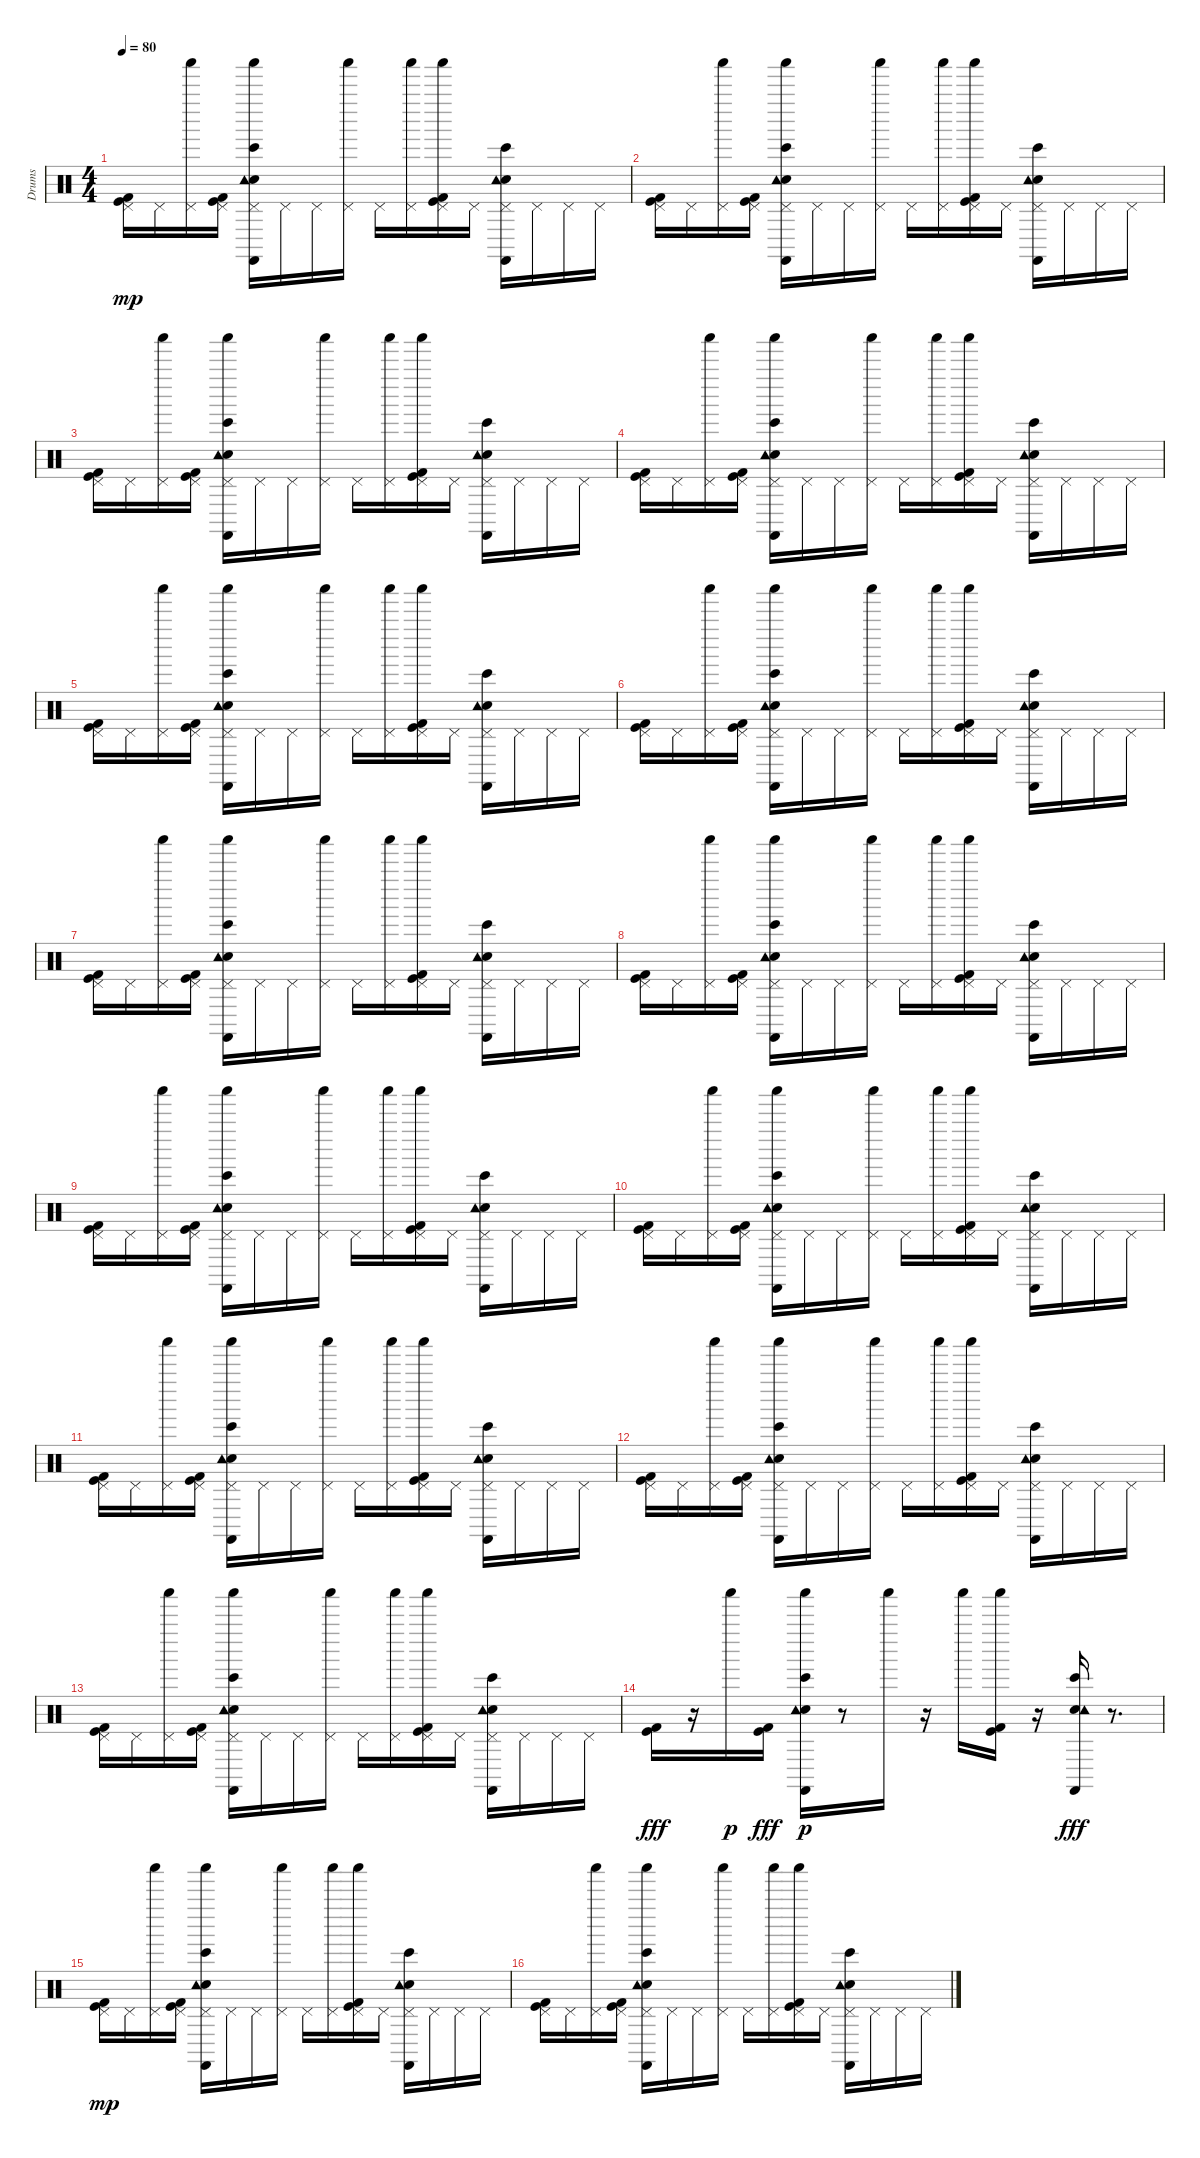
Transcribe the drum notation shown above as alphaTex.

\track ("Drums" "Drums") {instrument percussion}
\staff {score}
\articulation defaults
\ts (4 4)
\tempo 80
\clef neutral
\ks c
("Kick (hit)" "Kick (hit) 2" "Pedal Hi-Hat (hit)").16{dy mp} "Pedal Hi-Hat (hit)".16 ("Shaker (hit)" "Pedal Hi-Hat (hit)").16 ("Kick (hit)" "Kick (hit) 2" "Pedal Hi-Hat (hit)").16 ("Castanets (hit)" "Hand Clap (hit)" "Shaker (hit)" "Tambourine (hit)" "Bongo High (hit)" "Pedal Hi-Hat (hit)").16 "Pedal Hi-Hat (hit)".16 "Pedal Hi-Hat (hit)".16 ("Shaker (hit)" "Pedal Hi-Hat (hit)").16 "Pedal Hi-Hat (hit)".16 ("Shaker (hit)" "Pedal Hi-Hat (hit)").16 ("Kick (hit)" "Kick (hit) 2" "Shaker (hit)" "Pedal Hi-Hat (hit)").16 "Pedal Hi-Hat (hit)".16 ("Castanets (hit)" "Hand Clap (hit)" "Tambourine (hit)" "Bongo High (hit)" "Pedal Hi-Hat (hit)").16 "Pedal Hi-Hat (hit)".16 "Pedal Hi-Hat (hit)".16 "Pedal Hi-Hat (hit)".16 |
("Kick (hit)" "Kick (hit) 2" "Pedal Hi-Hat (hit)").16 "Pedal Hi-Hat (hit)".16 ("Shaker (hit)" "Pedal Hi-Hat (hit)").16 ("Kick (hit)" "Kick (hit) 2" "Pedal Hi-Hat (hit)").16 ("Castanets (hit)" "Hand Clap (hit)" "Shaker (hit)" "Tambourine (hit)" "Bongo High (hit)" "Pedal Hi-Hat (hit)").16 "Pedal Hi-Hat (hit)".16 "Pedal Hi-Hat (hit)".16 ("Shaker (hit)" "Pedal Hi-Hat (hit)").16 "Pedal Hi-Hat (hit)".16 ("Shaker (hit)" "Pedal Hi-Hat (hit)").16 ("Kick (hit)" "Kick (hit) 2" "Shaker (hit)" "Pedal Hi-Hat (hit)").16 "Pedal Hi-Hat (hit)".16 ("Castanets (hit)" "Hand Clap (hit)" "Tambourine (hit)" "Bongo High (hit)" "Pedal Hi-Hat (hit)").16 "Pedal Hi-Hat (hit)".16 "Pedal Hi-Hat (hit)".16 "Pedal Hi-Hat (hit)".16 |
("Kick (hit)" "Kick (hit) 2" "Pedal Hi-Hat (hit)").16 "Pedal Hi-Hat (hit)".16 ("Shaker (hit)" "Pedal Hi-Hat (hit)").16 ("Kick (hit)" "Kick (hit) 2" "Pedal Hi-Hat (hit)").16 ("Castanets (hit)" "Hand Clap (hit)" "Shaker (hit)" "Tambourine (hit)" "Bongo High (hit)" "Pedal Hi-Hat (hit)").16 "Pedal Hi-Hat (hit)".16 "Pedal Hi-Hat (hit)".16 ("Shaker (hit)" "Pedal Hi-Hat (hit)").16 "Pedal Hi-Hat (hit)".16 ("Shaker (hit)" "Pedal Hi-Hat (hit)").16 ("Kick (hit)" "Kick (hit) 2" "Shaker (hit)" "Pedal Hi-Hat (hit)").16 "Pedal Hi-Hat (hit)".16 ("Castanets (hit)" "Hand Clap (hit)" "Tambourine (hit)" "Bongo High (hit)" "Pedal Hi-Hat (hit)").16 "Pedal Hi-Hat (hit)".16 "Pedal Hi-Hat (hit)".16 "Pedal Hi-Hat (hit)".16 |
("Kick (hit)" "Kick (hit) 2" "Pedal Hi-Hat (hit)").16 "Pedal Hi-Hat (hit)".16 ("Shaker (hit)" "Pedal Hi-Hat (hit)").16 ("Kick (hit)" "Kick (hit) 2" "Pedal Hi-Hat (hit)").16 ("Castanets (hit)" "Hand Clap (hit)" "Shaker (hit)" "Tambourine (hit)" "Bongo High (hit)" "Pedal Hi-Hat (hit)").16 "Pedal Hi-Hat (hit)".16 "Pedal Hi-Hat (hit)".16 ("Shaker (hit)" "Pedal Hi-Hat (hit)").16 "Pedal Hi-Hat (hit)".16 ("Shaker (hit)" "Pedal Hi-Hat (hit)").16 ("Kick (hit)" "Kick (hit) 2" "Shaker (hit)" "Pedal Hi-Hat (hit)").16 "Pedal Hi-Hat (hit)".16 ("Castanets (hit)" "Hand Clap (hit)" "Tambourine (hit)" "Bongo High (hit)" "Pedal Hi-Hat (hit)").16 "Pedal Hi-Hat (hit)".16 "Pedal Hi-Hat (hit)".16 "Pedal Hi-Hat (hit)".16 |
("Kick (hit)" "Kick (hit) 2" "Pedal Hi-Hat (hit)").16 "Pedal Hi-Hat (hit)".16 ("Shaker (hit)" "Pedal Hi-Hat (hit)").16 ("Kick (hit)" "Kick (hit) 2" "Pedal Hi-Hat (hit)").16 ("Castanets (hit)" "Hand Clap (hit)" "Shaker (hit)" "Tambourine (hit)" "Bongo High (hit)" "Pedal Hi-Hat (hit)").16 "Pedal Hi-Hat (hit)".16 "Pedal Hi-Hat (hit)".16 ("Shaker (hit)" "Pedal Hi-Hat (hit)").16 "Pedal Hi-Hat (hit)".16 ("Shaker (hit)" "Pedal Hi-Hat (hit)").16 ("Kick (hit)" "Kick (hit) 2" "Shaker (hit)" "Pedal Hi-Hat (hit)").16 "Pedal Hi-Hat (hit)".16 ("Castanets (hit)" "Hand Clap (hit)" "Tambourine (hit)" "Bongo High (hit)" "Pedal Hi-Hat (hit)").16 "Pedal Hi-Hat (hit)".16 "Pedal Hi-Hat (hit)".16 "Pedal Hi-Hat (hit)".16 |
("Kick (hit)" "Kick (hit) 2" "Pedal Hi-Hat (hit)").16 "Pedal Hi-Hat (hit)".16 ("Shaker (hit)" "Pedal Hi-Hat (hit)").16 ("Kick (hit)" "Kick (hit) 2" "Pedal Hi-Hat (hit)").16 ("Castanets (hit)" "Hand Clap (hit)" "Shaker (hit)" "Tambourine (hit)" "Bongo High (hit)" "Pedal Hi-Hat (hit)").16 "Pedal Hi-Hat (hit)".16 "Pedal Hi-Hat (hit)".16 ("Shaker (hit)" "Pedal Hi-Hat (hit)").16 "Pedal Hi-Hat (hit)".16 ("Shaker (hit)" "Pedal Hi-Hat (hit)").16 ("Kick (hit)" "Kick (hit) 2" "Shaker (hit)" "Pedal Hi-Hat (hit)").16 "Pedal Hi-Hat (hit)".16 ("Castanets (hit)" "Hand Clap (hit)" "Tambourine (hit)" "Bongo High (hit)" "Pedal Hi-Hat (hit)").16 "Pedal Hi-Hat (hit)".16 "Pedal Hi-Hat (hit)".16 "Pedal Hi-Hat (hit)".16 |
("Kick (hit)" "Kick (hit) 2" "Pedal Hi-Hat (hit)").16 "Pedal Hi-Hat (hit)".16 ("Shaker (hit)" "Pedal Hi-Hat (hit)").16 ("Kick (hit)" "Kick (hit) 2" "Pedal Hi-Hat (hit)").16 ("Castanets (hit)" "Hand Clap (hit)" "Shaker (hit)" "Tambourine (hit)" "Bongo High (hit)" "Pedal Hi-Hat (hit)").16 "Pedal Hi-Hat (hit)".16 "Pedal Hi-Hat (hit)".16 ("Shaker (hit)" "Pedal Hi-Hat (hit)").16 "Pedal Hi-Hat (hit)".16 ("Shaker (hit)" "Pedal Hi-Hat (hit)").16 ("Kick (hit)" "Kick (hit) 2" "Shaker (hit)" "Pedal Hi-Hat (hit)").16 "Pedal Hi-Hat (hit)".16 ("Castanets (hit)" "Hand Clap (hit)" "Tambourine (hit)" "Bongo High (hit)" "Pedal Hi-Hat (hit)").16 "Pedal Hi-Hat (hit)".16 "Pedal Hi-Hat (hit)".16 "Pedal Hi-Hat (hit)".16 |
("Kick (hit)" "Kick (hit) 2" "Pedal Hi-Hat (hit)").16 "Pedal Hi-Hat (hit)".16 ("Shaker (hit)" "Pedal Hi-Hat (hit)").16 ("Kick (hit)" "Kick (hit) 2" "Pedal Hi-Hat (hit)").16 ("Castanets (hit)" "Hand Clap (hit)" "Shaker (hit)" "Tambourine (hit)" "Bongo High (hit)" "Pedal Hi-Hat (hit)").16 "Pedal Hi-Hat (hit)".16 "Pedal Hi-Hat (hit)".16 ("Shaker (hit)" "Pedal Hi-Hat (hit)").16 "Pedal Hi-Hat (hit)".16 ("Shaker (hit)" "Pedal Hi-Hat (hit)").16 ("Kick (hit)" "Kick (hit) 2" "Shaker (hit)" "Pedal Hi-Hat (hit)").16 "Pedal Hi-Hat (hit)".16 ("Castanets (hit)" "Hand Clap (hit)" "Tambourine (hit)" "Bongo High (hit)" "Pedal Hi-Hat (hit)").16 "Pedal Hi-Hat (hit)".16 "Pedal Hi-Hat (hit)".16 "Pedal Hi-Hat (hit)".16 |
("Kick (hit)" "Kick (hit) 2" "Pedal Hi-Hat (hit)").16 "Pedal Hi-Hat (hit)".16 ("Shaker (hit)" "Pedal Hi-Hat (hit)").16 ("Kick (hit)" "Kick (hit) 2" "Pedal Hi-Hat (hit)").16 ("Castanets (hit)" "Hand Clap (hit)" "Shaker (hit)" "Tambourine (hit)" "Bongo High (hit)" "Pedal Hi-Hat (hit)").16 "Pedal Hi-Hat (hit)".16 "Pedal Hi-Hat (hit)".16 ("Shaker (hit)" "Pedal Hi-Hat (hit)").16 "Pedal Hi-Hat (hit)".16 ("Shaker (hit)" "Pedal Hi-Hat (hit)").16 ("Kick (hit)" "Kick (hit) 2" "Shaker (hit)" "Pedal Hi-Hat (hit)").16 "Pedal Hi-Hat (hit)".16 ("Castanets (hit)" "Hand Clap (hit)" "Tambourine (hit)" "Bongo High (hit)" "Pedal Hi-Hat (hit)").16 "Pedal Hi-Hat (hit)".16 "Pedal Hi-Hat (hit)".16 "Pedal Hi-Hat (hit)".16 |
("Kick (hit)" "Kick (hit) 2" "Pedal Hi-Hat (hit)").16 "Pedal Hi-Hat (hit)".16 ("Shaker (hit)" "Pedal Hi-Hat (hit)").16 ("Kick (hit)" "Kick (hit) 2" "Pedal Hi-Hat (hit)").16 ("Castanets (hit)" "Hand Clap (hit)" "Shaker (hit)" "Tambourine (hit)" "Bongo High (hit)" "Pedal Hi-Hat (hit)").16 "Pedal Hi-Hat (hit)".16 "Pedal Hi-Hat (hit)".16 ("Shaker (hit)" "Pedal Hi-Hat (hit)").16 "Pedal Hi-Hat (hit)".16 ("Shaker (hit)" "Pedal Hi-Hat (hit)").16 ("Kick (hit)" "Kick (hit) 2" "Shaker (hit)" "Pedal Hi-Hat (hit)").16 "Pedal Hi-Hat (hit)".16 ("Castanets (hit)" "Hand Clap (hit)" "Tambourine (hit)" "Bongo High (hit)" "Pedal Hi-Hat (hit)").16 "Pedal Hi-Hat (hit)".16 "Pedal Hi-Hat (hit)".16 "Pedal Hi-Hat (hit)".16 |
("Kick (hit)" "Kick (hit) 2" "Pedal Hi-Hat (hit)").16 "Pedal Hi-Hat (hit)".16 ("Shaker (hit)" "Pedal Hi-Hat (hit)").16 ("Kick (hit)" "Kick (hit) 2" "Pedal Hi-Hat (hit)").16 ("Castanets (hit)" "Hand Clap (hit)" "Shaker (hit)" "Tambourine (hit)" "Bongo High (hit)" "Pedal Hi-Hat (hit)").16 "Pedal Hi-Hat (hit)".16 "Pedal Hi-Hat (hit)".16 ("Shaker (hit)" "Pedal Hi-Hat (hit)").16 "Pedal Hi-Hat (hit)".16 ("Shaker (hit)" "Pedal Hi-Hat (hit)").16 ("Kick (hit)" "Kick (hit) 2" "Shaker (hit)" "Pedal Hi-Hat (hit)").16 "Pedal Hi-Hat (hit)".16 ("Castanets (hit)" "Hand Clap (hit)" "Tambourine (hit)" "Bongo High (hit)" "Pedal Hi-Hat (hit)").16 "Pedal Hi-Hat (hit)".16 "Pedal Hi-Hat (hit)".16 "Pedal Hi-Hat (hit)".16 |
("Kick (hit)" "Kick (hit) 2" "Pedal Hi-Hat (hit)").16 "Pedal Hi-Hat (hit)".16 ("Shaker (hit)" "Pedal Hi-Hat (hit)").16 ("Kick (hit)" "Kick (hit) 2" "Pedal Hi-Hat (hit)").16 ("Castanets (hit)" "Hand Clap (hit)" "Shaker (hit)" "Tambourine (hit)" "Bongo High (hit)" "Pedal Hi-Hat (hit)").16 "Pedal Hi-Hat (hit)".16 "Pedal Hi-Hat (hit)".16 ("Shaker (hit)" "Pedal Hi-Hat (hit)").16 "Pedal Hi-Hat (hit)".16 ("Shaker (hit)" "Pedal Hi-Hat (hit)").16 ("Kick (hit)" "Kick (hit) 2" "Shaker (hit)" "Pedal Hi-Hat (hit)").16 "Pedal Hi-Hat (hit)".16 ("Castanets (hit)" "Hand Clap (hit)" "Tambourine (hit)" "Bongo High (hit)" "Pedal Hi-Hat (hit)").16 "Pedal Hi-Hat (hit)".16 "Pedal Hi-Hat (hit)".16 "Pedal Hi-Hat (hit)".16 |
("Kick (hit)" "Kick (hit) 2" "Pedal Hi-Hat (hit)").16 "Pedal Hi-Hat (hit)".16 ("Shaker (hit)" "Pedal Hi-Hat (hit)").16 ("Kick (hit)" "Kick (hit) 2" "Pedal Hi-Hat (hit)").16 ("Castanets (hit)" "Hand Clap (hit)" "Shaker (hit)" "Tambourine (hit)" "Bongo High (hit)" "Pedal Hi-Hat (hit)").16 "Pedal Hi-Hat (hit)".16 "Pedal Hi-Hat (hit)".16 ("Shaker (hit)" "Pedal Hi-Hat (hit)").16 "Pedal Hi-Hat (hit)".16 ("Shaker (hit)" "Pedal Hi-Hat (hit)").16 ("Kick (hit)" "Kick (hit) 2" "Shaker (hit)" "Pedal Hi-Hat (hit)").16 "Pedal Hi-Hat (hit)".16 ("Castanets (hit)" "Hand Clap (hit)" "Tambourine (hit)" "Bongo High (hit)" "Pedal Hi-Hat (hit)").16 "Pedal Hi-Hat (hit)".16 "Pedal Hi-Hat (hit)".16 "Pedal Hi-Hat (hit)".16 |
("Kick (hit)" "Kick (hit) 2").16{dy fff} r.16 "Shaker (hit)".16{dy p} ("Kick (hit)" "Kick (hit) 2").16{dy fff} ("Castanets (hit)" "Hand Clap (hit)" "Shaker (hit)" "Tambourine (hit)" "Bongo High (hit)").16{dy p} r.8 "Shaker (hit)".16 r.16 "Shaker (hit)".16 ("Kick (hit)" "Kick (hit) 2" "Shaker (hit)").16 r.16 ("Castanets (hit)" "Hand Clap (hit)" "Tambourine (hit)" "Bongo High (hit)").16{dy fff} r.8{d} |
("Kick (hit)" "Kick (hit) 2" "Pedal Hi-Hat (hit)").16{dy mp} "Pedal Hi-Hat (hit)".16 ("Shaker (hit)" "Pedal Hi-Hat (hit)").16 ("Kick (hit)" "Kick (hit) 2" "Pedal Hi-Hat (hit)").16 ("Castanets (hit)" "Hand Clap (hit)" "Shaker (hit)" "Tambourine (hit)" "Bongo High (hit)" "Pedal Hi-Hat (hit)").16 "Pedal Hi-Hat (hit)".16 "Pedal Hi-Hat (hit)".16 ("Shaker (hit)" "Pedal Hi-Hat (hit)").16 "Pedal Hi-Hat (hit)".16 ("Shaker (hit)" "Pedal Hi-Hat (hit)").16 ("Kick (hit)" "Kick (hit) 2" "Shaker (hit)" "Pedal Hi-Hat (hit)").16 "Pedal Hi-Hat (hit)".16 ("Castanets (hit)" "Hand Clap (hit)" "Tambourine (hit)" "Bongo High (hit)" "Pedal Hi-Hat (hit)").16 "Pedal Hi-Hat (hit)".16 "Pedal Hi-Hat (hit)".16 "Pedal Hi-Hat (hit)".16 |
("Kick (hit)" "Kick (hit) 2" "Pedal Hi-Hat (hit)").16 "Pedal Hi-Hat (hit)".16 ("Shaker (hit)" "Pedal Hi-Hat (hit)").16 ("Kick (hit)" "Kick (hit) 2" "Pedal Hi-Hat (hit)").16 ("Castanets (hit)" "Hand Clap (hit)" "Shaker (hit)" "Tambourine (hit)" "Bongo High (hit)" "Pedal Hi-Hat (hit)").16 "Pedal Hi-Hat (hit)".16 "Pedal Hi-Hat (hit)".16 ("Shaker (hit)" "Pedal Hi-Hat (hit)").16 "Pedal Hi-Hat (hit)".16 ("Shaker (hit)" "Pedal Hi-Hat (hit)").16 ("Kick (hit)" "Kick (hit) 2" "Shaker (hit)" "Pedal Hi-Hat (hit)").16 "Pedal Hi-Hat (hit)".16 ("Castanets (hit)" "Hand Clap (hit)" "Tambourine (hit)" "Bongo High (hit)" "Pedal Hi-Hat (hit)").16 "Pedal Hi-Hat (hit)".16 "Pedal Hi-Hat (hit)".16 "Pedal Hi-Hat (hit)".16
